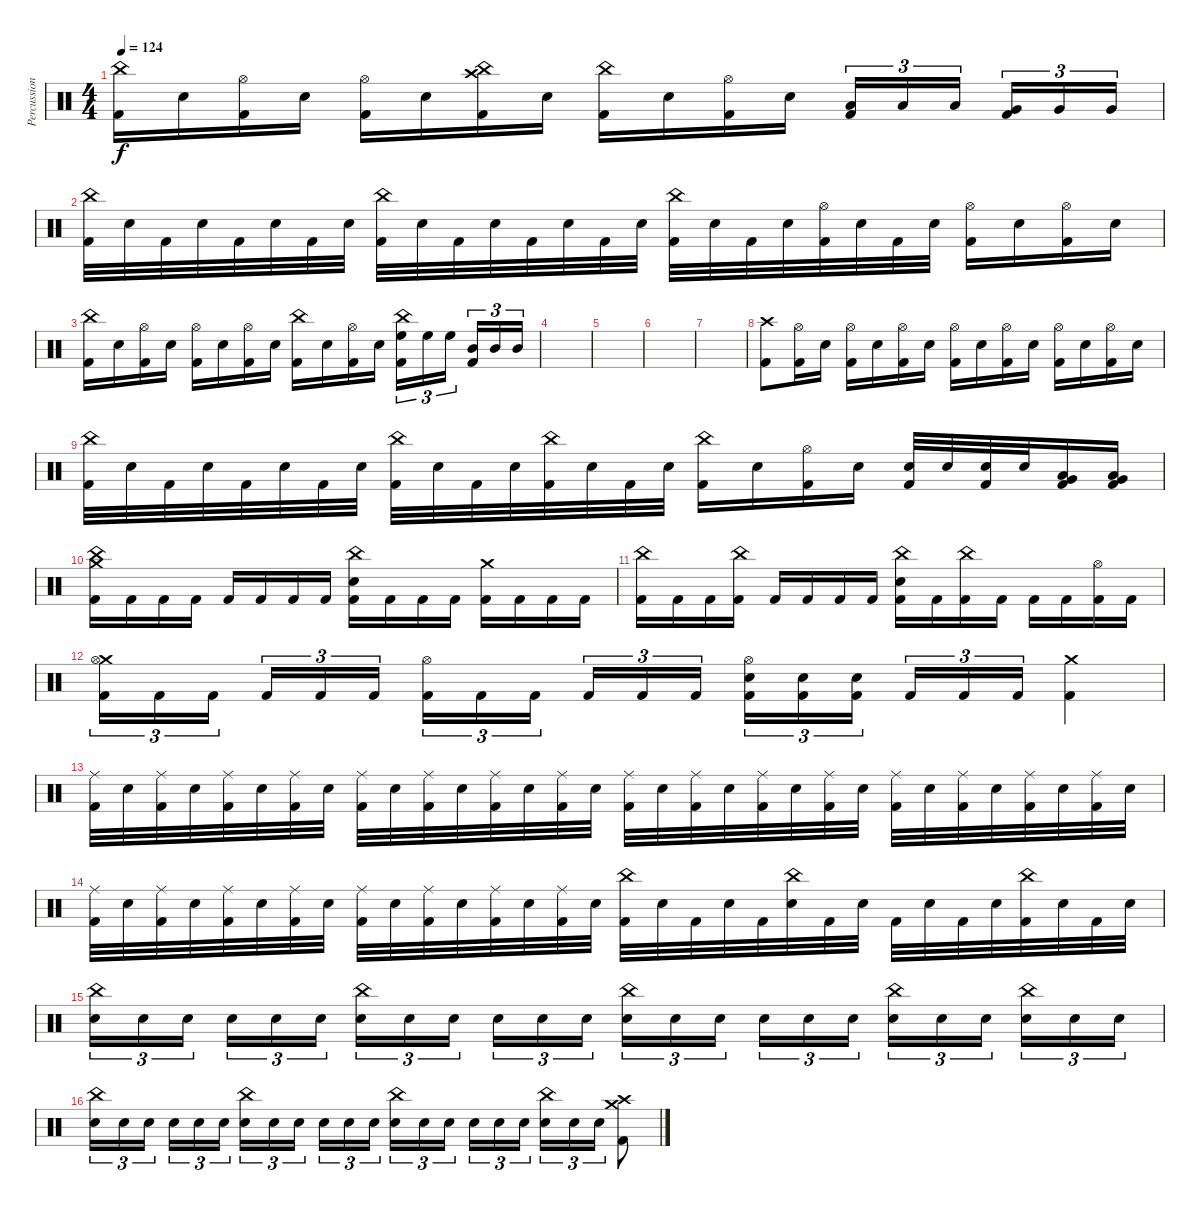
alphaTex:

\track ("Percussion" "Percussion") {instrument percussion}
\staff {score}
\articulation defaults
\ts (4 4)
\tempo 124
\clef neutral
\ks c
("China (hit)" "Kick (hit) 2").16{dy f} "Electric Snare (hit)".16 ("Hi-Hat (open)" "Kick (hit) 2").16 "Electric Snare (hit)".16 ("Hi-Hat (open)" "Kick (hit) 2").16 "Electric Snare (hit)".16 ("Crash high (hit)" "China (hit)" "Kick (hit) 2").16 "Electric Snare (hit)".16 ("China (hit)" "Kick (hit) 2").16 "Electric Snare (hit)".16 ("Hi-Hat (open)" "Kick (hit) 2").16 "Electric Snare (hit)".16 ("Low Tom (hit)" "Kick (hit) 2").16{tu (3 2)} "Low Tom (hit)".16{tu (3 2)} "Low Tom (hit)".16{tu (3 2) beam splitsecondary} ("Very Low Tom (hit)" "Kick (hit) 2").16{tu (3 2)} "Very Low Tom (hit)".16{tu (3 2)} "Very Low Tom (hit)".16{tu (3 2)} |
("China (hit)" "Kick (hit) 2").32 "Electric Snare (hit)".32 "Kick (hit) 2".32 "Electric Snare (hit)".32 "Kick (hit) 2".32 "Electric Snare (hit)".32 "Kick (hit) 2".32 "Electric Snare (hit)".32 ("China (hit)" "Kick (hit) 2").32 "Electric Snare (hit)".32 "Kick (hit) 2".32 "Electric Snare (hit)".32 "Kick (hit) 2".32 "Electric Snare (hit)".32 "Kick (hit) 2".32 "Electric Snare (hit)".32 ("China (hit)" "Kick (hit) 2").32 "Electric Snare (hit)".32 "Kick (hit) 2".32 "Electric Snare (hit)".32 ("Hi-Hat (open)" "Kick (hit) 2").32 "Electric Snare (hit)".32 "Kick (hit) 2".32 "Electric Snare (hit)".32 ("Hi-Hat (open)" "Kick (hit) 2").16 "Electric Snare (hit)".16 ("Hi-Hat (open)" "Kick (hit) 2").16 "Electric Snare (hit)".16 |
("China (hit)" "Kick (hit) 2").16 "Electric Snare (hit)".16 ("Hi-Hat (open)" "Kick (hit) 2").16 "Electric Snare (hit)".16 ("Hi-Hat (open)" "Kick (hit) 2").16 "Electric Snare (hit)".16 ("Hi-Hat (open)" "Kick (hit) 2").16 "Electric Snare (hit)".16 ("China (hit)" "Kick (hit) 2").16 "Electric Snare (hit)".16 ("Hi-Hat (open)" "Kick (hit) 2").16 "Electric Snare (hit)".16 ("China (hit)" "High Floor Tom (hit)" "Kick (hit) 2").16{tu (3 2)} "High Floor Tom (hit)".16{tu (3 2)} "High Floor Tom (hit)".16{tu (3 2) beam splitsecondary} ("Mid Tom (hit)" "Kick (hit) 2").16{tu (3 2)} "Mid Tom (hit)".16{tu (3 2)} "Mid Tom (hit)".16{tu (3 2)} |
|
|
|
|
("Crash high (hit)" "Kick (hit) 2").8 ("Hi-Hat (open)" "Kick (hit) 2").16 "Electric Snare (hit)".16 ("Hi-Hat (open)" "Kick (hit) 2").16 "Electric Snare (hit)".16 ("Hi-Hat (open)" "Kick (hit) 2").16 "Electric Snare (hit)".16 ("Hi-Hat (open)" "Kick (hit) 2").16 "Electric Snare (hit)".16 ("Hi-Hat (open)" "Kick (hit) 2").16 "Electric Snare (hit)".16 ("Hi-Hat (open)" "Kick (hit) 2").16 "Electric Snare (hit)".16 ("Hi-Hat (open)" "Kick (hit) 2").16 "Electric Snare (hit)".16 |
("China (hit)" "Kick (hit) 2").32 "Electric Snare (hit)".32 "Kick (hit) 2".32 "Electric Snare (hit)".32 "Kick (hit) 2".32 "Electric Snare (hit)".32 "Kick (hit) 2".32 "Electric Snare (hit)".32 ("China (hit)" "Kick (hit) 2").32 "Electric Snare (hit)".32 "Kick (hit) 2".32 "Electric Snare (hit)".32 ("China (hit)" "Kick (hit) 2").32 "Electric Snare (hit)".32 "Kick (hit) 2".32 "Electric Snare (hit)".32 ("China (hit)" "Kick (hit) 2").16 "Electric Snare (hit)".16 ("Hi-Hat (open)" "Kick (hit) 2").16 "Electric Snare (hit)".16 ("Electric Snare (hit)" "Kick (hit) 2").32 "Electric Snare (hit)".32 ("Electric Snare (hit)" "Kick (hit) 2").32 "Electric Snare (hit)".32 ("Low Floor Tom (hit)" "Very Low Tom (hit)" "Kick (hit) 2").16 ("Low Floor Tom (hit)" "Very Low Tom (hit)" "Kick (hit) 2").16 |
("Crash medium (hit)" "China (hit)" "Kick (hit) 2").16 "Kick (hit) 2".16 "Kick (hit) 2".16 "Kick (hit) 2".16 "Kick (hit) 2".16 "Kick (hit) 2".16 "Kick (hit) 2".16 "Kick (hit) 2".16 ("China (hit)" "Electric Snare (hit)" "Kick (hit) 2").16 "Kick (hit) 2".16 "Kick (hit) 2".16 "Kick (hit) 2".16 ("Crash medium (hit)" "Kick (hit) 2").16 "Kick (hit) 2".16 "Kick (hit) 2".16 "Kick (hit) 2".16 |
("China (hit)" "Kick (hit) 2").16 "Kick (hit) 2".16 "Kick (hit) 2".16 ("China (hit)" "Kick (hit) 2").16 "Kick (hit) 2".16 "Kick (hit) 2".16 "Kick (hit) 2".16 "Kick (hit) 2".16 ("China (hit)" "Electric Snare (hit)" "Kick (hit) 2").16 "Kick (hit) 2".16 ("China (hit)" "Kick (hit) 2").16 "Kick (hit) 2".16 "Kick (hit) 2".16 "Kick (hit) 2".16 ("Hi-Hat (open)" "Kick (hit) 2").16 "Kick (hit) 2".16 |
("Crash medium (hit)" "Hi-Hat (open)" "Kick (hit) 2").16{tu (3 2)} "Kick (hit) 2".16{tu (3 2)} "Kick (hit) 2".16{tu (3 2) beam splitsecondary} "Kick (hit) 2".16{tu (3 2)} "Kick (hit) 2".16{tu (3 2)} "Kick (hit) 2".16{tu (3 2)} ("Hi-Hat (open)" "Kick (hit) 2").16{tu (3 2)} "Kick (hit) 2".16{tu (3 2)} "Kick (hit) 2".16{tu (3 2) beam splitsecondary} "Kick (hit) 2".16{tu (3 2)} "Kick (hit) 2".16{tu (3 2)} "Kick (hit) 2".16{tu (3 2)} ("Hi-Hat (open)" "Electric Snare (hit)" "Kick (hit) 2").16{tu (3 2)} ("Electric Snare (hit)" "Kick (hit) 2").16{tu (3 2)} ("Electric Snare (hit)" "Kick (hit) 2").16{tu (3 2) beam splitsecondary} "Kick (hit) 2".16{tu (3 2)} "Kick (hit) 2".16{tu (3 2)} "Kick (hit) 2".16{tu (3 2)} ("Crash medium (hit)" "Kick (hit) 2").4 |
("Ride (middle)" "Kick (hit) 2").32 "Electric Snare (hit)".32 ("Ride (middle)" "Kick (hit) 2").32 "Electric Snare (hit)".32 ("Ride (middle)" "Kick (hit) 2").32 "Electric Snare (hit)".32 ("Ride (middle)" "Kick (hit) 2").32 "Electric Snare (hit)".32 ("Ride (middle)" "Kick (hit) 2").32 "Electric Snare (hit)".32 ("Ride (middle)" "Kick (hit) 2").32 "Electric Snare (hit)".32 ("Ride (middle)" "Kick (hit) 2").32 "Electric Snare (hit)".32 ("Ride (middle)" "Kick (hit) 2").32 "Electric Snare (hit)".32 ("Ride (middle)" "Kick (hit) 2").32 "Electric Snare (hit)".32 ("Ride (middle)" "Kick (hit) 2").32 "Electric Snare (hit)".32 ("Ride (middle)" "Kick (hit) 2").32 "Electric Snare (hit)".32 ("Ride (middle)" "Kick (hit) 2").32 "Electric Snare (hit)".32 ("Ride (middle)" "Kick (hit) 2").32 "Electric Snare (hit)".32 ("Ride (middle)" "Kick (hit) 2").32 "Electric Snare (hit)".32 ("Ride (middle)" "Kick (hit) 2").32 "Electric Snare (hit)".32 ("Ride (middle)" "Kick (hit) 2").32 "Electric Snare (hit)".32 |
("Ride (middle)" "Kick (hit) 2").32 "Electric Snare (hit)".32 ("Ride (middle)" "Kick (hit) 2").32 "Electric Snare (hit)".32 ("Ride (middle)" "Kick (hit) 2").32 "Electric Snare (hit)".32 ("Ride (middle)" "Kick (hit) 2").32 "Electric Snare (hit)".32 ("Ride (middle)" "Kick (hit) 2").32 "Electric Snare (hit)".32 ("Ride (middle)" "Kick (hit) 2").32 "Electric Snare (hit)".32 ("Ride (middle)" "Kick (hit) 2").32 "Electric Snare (hit)".32 ("Ride (middle)" "Kick (hit) 2").32 "Electric Snare (hit)".32 ("China (hit)" "Kick (hit) 2").32 "Electric Snare (hit)".32 "Kick (hit) 2".32 "Electric Snare (hit)".32 "Kick (hit) 2".32 ("China (hit)" "Electric Snare (hit)").32 "Kick (hit) 2".32 "Electric Snare (hit)".32 "Kick (hit) 2".32 "Electric Snare (hit)".32 "Kick (hit) 2".32 "Electric Snare (hit)".32 ("China (hit)" "Kick (hit) 2").32 "Electric Snare (hit)".32 "Kick (hit) 2".32 "Electric Snare (hit)".32 |
("China (hit)" "Electric Snare (hit)").16{tu (3 2)} "Electric Snare (hit)".16{tu (3 2)} "Electric Snare (hit)".16{tu (3 2) beam splitsecondary} "Electric Snare (hit)".16{tu (3 2)} "Electric Snare (hit)".16{tu (3 2)} "Electric Snare (hit)".16{tu (3 2)} ("China (hit)" "Electric Snare (hit)").16{tu (3 2)} "Electric Snare (hit)".16{tu (3 2)} "Electric Snare (hit)".16{tu (3 2) beam splitsecondary} "Electric Snare (hit)".16{tu (3 2)} "Electric Snare (hit)".16{tu (3 2)} "Electric Snare (hit)".16{tu (3 2)} ("China (hit)" "Electric Snare (hit)").16{tu (3 2)} "Electric Snare (hit)".16{tu (3 2)} "Electric Snare (hit)".16{tu (3 2) beam splitsecondary} "Electric Snare (hit)".16{tu (3 2)} "Electric Snare (hit)".16{tu (3 2)} "Electric Snare (hit)".16{tu (3 2)} ("China (hit)" "Electric Snare (hit)").16{tu (3 2)} "Electric Snare (hit)".16{tu (3 2)} "Electric Snare (hit)".16{tu (3 2) beam splitsecondary} ("China (hit)" "Electric Snare (hit)").16{tu (3 2)} "Electric Snare (hit)".16{tu (3 2)} "Electric Snare (hit)".16{tu (3 2)} |
("China (hit)" "Electric Snare (hit)").16{tu (3 2)} "Electric Snare (hit)".16{tu (3 2)} "Electric Snare (hit)".16{tu (3 2) beam splitsecondary} "Electric Snare (hit)".16{tu (3 2)} "Electric Snare (hit)".16{tu (3 2)} "Electric Snare (hit)".16{tu (3 2)} ("China (hit)" "Electric Snare (hit)").16{tu (3 2)} "Electric Snare (hit)".16{tu (3 2)} "Electric Snare (hit)".16{tu (3 2) beam splitsecondary} "Electric Snare (hit)".16{tu (3 2)} "Electric Snare (hit)".16{tu (3 2)} "Electric Snare (hit)".16{tu (3 2)} ("China (hit)" "Electric Snare (hit)").16{tu (3 2)} "Electric Snare (hit)".16{tu (3 2)} "Electric Snare (hit)".16{tu (3 2) beam splitsecondary} "Electric Snare (hit)".16{tu (3 2)} "Electric Snare (hit)".16{tu (3 2)} "Electric Snare (hit)".16{tu (3 2)} ("China (hit)" "Electric Snare (hit)").16{tu (3 2)} "Electric Snare (hit)".16{tu (3 2)} "Electric Snare (hit)".16{tu (3 2)} ("Crash medium (hit)" "Crash high (hit)" "Kick (hit) 2").8
